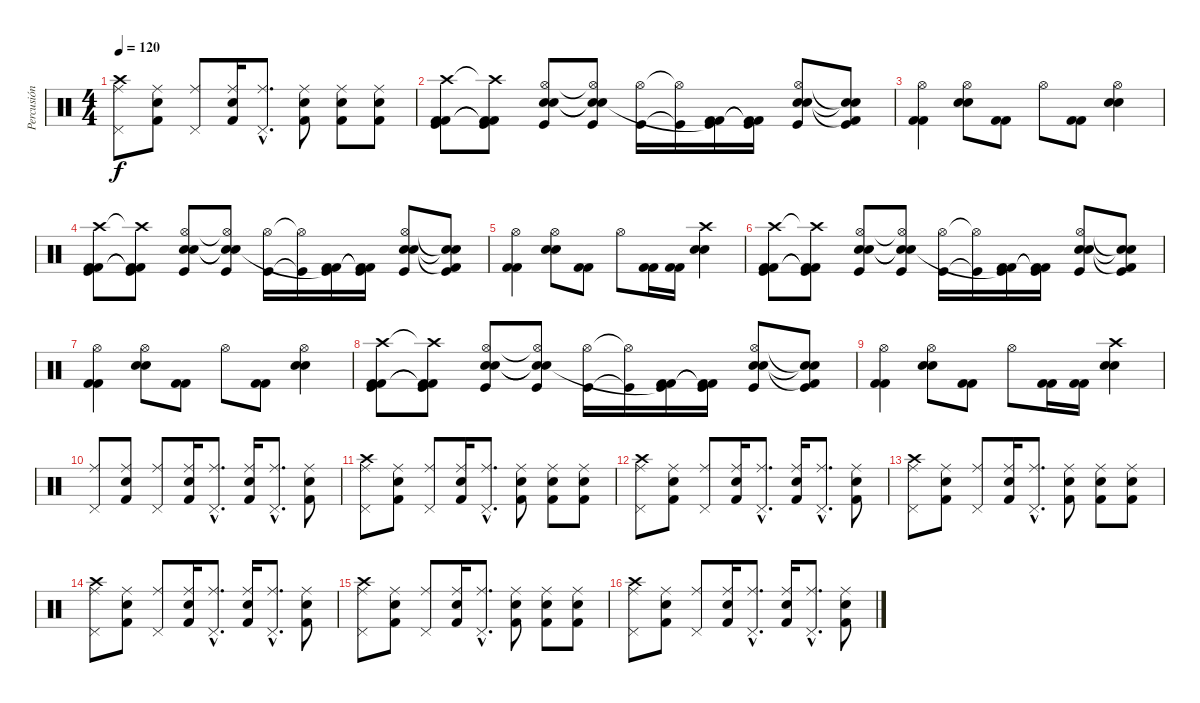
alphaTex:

\track ("Percusión" "Percusión") {instrument percussion}
\staff {score}
\articulation defaults
\ts (4 4)
\tempo 120
\clef neutral
\ks c
("Crash high (hit)" "Ride (middle)" "Pedal Hi-Hat (hit)").8{dy f} ("Ride (middle)" "Kick (hit) 2" "Snare (hit) 2").8 ("Ride (middle)" "Pedal Hi-Hat (hit)").8 ("Ride (middle)" "Kick (hit) 2" "Snare (hit) 2").16 ("Ride (middle)"{hac} "Pedal Hi-Hat (hit)"{hac}).8{d} ("Ride (middle)" "Kick (hit) 2" "Snare (hit) 2").8 ("Ride (middle)" "Kick (hit) 2" "Snare (hit) 2").8 ("Ride (middle)" "Kick (hit) 2" "Snare (hit) 2").8 |
("Crash high (hit)" "Kick (hit) 2" "Kick (hit) 2" "Kick (hit)").8 ("Crash high (hit)"{t} "Kick (hit) 2"{t} "Kick (hit) 2"{t} "Kick (hit)").8 ("Hi-Hat (open)" "Electric Snare (hit)" "Electric Snare (hit)" "Kick (hit)").8 ("Hi-Hat (open)"{t} "Electric Snare (hit)"{t} "Electric Snare (hit)"{t} "Kick (hit)").8 ("Hi-Hat (open)" "Kick (hit)").16 ("Hi-Hat (open)"{t} "Kick (hit)"{t}).16 ("Kick (hit) 2" "Kick (hit) 2" "Kick (hit)"{t}).16 ("Kick (hit) 2"{t} "Kick (hit) 2"{t} "Kick (hit)").16 ("Hi-Hat (open)" "Electric Snare (hit)" "Electric Snare (hit)" "Kick (hit)").8 ("Snare (hit)"{t} "Snare (hit)"{t} "Kick (hit) 2"{t} "Kick (hit)").8 |
("Hi-Hat (open)" "Kick (hit) 2" "Kick (hit) 2").4 ("Hi-Hat (open)" "Electric Snare (hit)" "Electric Snare (hit)").8 ("Kick (hit) 2" "Kick (hit) 2").8 "Hi-Hat (open)".8 ("Kick (hit) 2" "Kick (hit) 2").8 ("Hi-Hat (open)" "Electric Snare (hit)" "Electric Snare (hit)").4 |
("Crash high (hit)" "Kick (hit) 2" "Kick (hit) 2" "Kick (hit)").8 ("Crash high (hit)"{t} "Kick (hit) 2"{t} "Kick (hit) 2"{t} "Kick (hit)").8 ("Hi-Hat (open)" "Electric Snare (hit)" "Electric Snare (hit)" "Kick (hit)").8 ("Hi-Hat (open)"{t} "Electric Snare (hit)"{t} "Electric Snare (hit)"{t} "Kick (hit)").8 ("Hi-Hat (open)" "Kick (hit)").16 ("Hi-Hat (open)"{t} "Kick (hit)"{t}).16 ("Kick (hit) 2" "Kick (hit) 2" "Kick (hit)"{t}).16 ("Kick (hit) 2"{t} "Kick (hit) 2"{t} "Kick (hit)").16 ("Hi-Hat (open)" "Electric Snare (hit)" "Electric Snare (hit)" "Kick (hit)").8 ("Snare (hit)"{t} "Snare (hit)"{t} "Kick (hit) 2"{t} "Kick (hit)").8 |
("Hi-Hat (open)" "Kick (hit) 2" "Kick (hit) 2").4 ("Hi-Hat (open)" "Electric Snare (hit)" "Electric Snare (hit)").8 ("Kick (hit) 2" "Kick (hit) 2").8 "Hi-Hat (open)".8 ("Kick (hit) 2" "Kick (hit) 2").16 ("Kick (hit) 2" "Kick (hit) 2").16 ("Crash high (hit)" "Electric Snare (hit)" "Electric Snare (hit)").4 |
("Crash high (hit)" "Kick (hit) 2" "Kick (hit) 2" "Kick (hit)").8 ("Crash high (hit)"{t} "Kick (hit) 2"{t} "Kick (hit) 2"{t} "Kick (hit)").8 ("Hi-Hat (open)" "Electric Snare (hit)" "Electric Snare (hit)" "Kick (hit)").8 ("Hi-Hat (open)"{t} "Electric Snare (hit)"{t} "Electric Snare (hit)"{t} "Kick (hit)").8 ("Hi-Hat (open)" "Kick (hit)").16 ("Hi-Hat (open)"{t} "Kick (hit)"{t}).16 ("Kick (hit) 2" "Kick (hit) 2" "Kick (hit)"{t}).16 ("Kick (hit) 2"{t} "Kick (hit) 2"{t} "Kick (hit)").16 ("Hi-Hat (open)" "Electric Snare (hit)" "Electric Snare (hit)" "Kick (hit)").8 ("Snare (hit)"{t} "Snare (hit)"{t} "Kick (hit) 2"{t} "Kick (hit)").8 |
("Hi-Hat (open)" "Kick (hit) 2" "Kick (hit) 2").4 ("Hi-Hat (open)" "Electric Snare (hit)" "Electric Snare (hit)").8 ("Kick (hit) 2" "Kick (hit) 2").8 "Hi-Hat (open)".8 ("Kick (hit) 2" "Kick (hit) 2").8 ("Hi-Hat (open)" "Electric Snare (hit)" "Electric Snare (hit)").4 |
("Crash high (hit)" "Kick (hit) 2" "Kick (hit) 2" "Kick (hit)").8 ("Crash high (hit)"{t} "Kick (hit) 2"{t} "Kick (hit) 2"{t} "Kick (hit)").8 ("Hi-Hat (open)" "Electric Snare (hit)" "Electric Snare (hit)" "Kick (hit)").8 ("Hi-Hat (open)"{t} "Electric Snare (hit)"{t} "Electric Snare (hit)"{t} "Kick (hit)").8 ("Hi-Hat (open)" "Kick (hit)").16 ("Hi-Hat (open)"{t} "Kick (hit)"{t}).16 ("Kick (hit) 2" "Kick (hit) 2" "Kick (hit)"{t}).16 ("Kick (hit) 2"{t} "Kick (hit) 2"{t} "Kick (hit)").16 ("Hi-Hat (open)" "Electric Snare (hit)" "Electric Snare (hit)" "Kick (hit)").8 ("Snare (hit)"{t} "Snare (hit)"{t} "Kick (hit) 2"{t} "Kick (hit)").8 |
("Hi-Hat (open)" "Kick (hit) 2" "Kick (hit) 2").4 ("Hi-Hat (open)" "Electric Snare (hit)" "Electric Snare (hit)").8 ("Kick (hit) 2" "Kick (hit) 2").8 "Hi-Hat (open)".8 ("Kick (hit) 2" "Kick (hit) 2").16 ("Kick (hit) 2" "Kick (hit) 2").16 ("Crash high (hit)" "Electric Snare (hit)" "Electric Snare (hit)").4 |
("Ride (middle)" "Pedal Hi-Hat (hit)").8 ("Ride (middle)" "Kick (hit) 2" "Snare (hit) 2").8 ("Ride (middle)" "Pedal Hi-Hat (hit)").8 ("Ride (middle)" "Kick (hit) 2" "Snare (hit) 2").16 ("Ride (middle)"{hac} "Pedal Hi-Hat (hit)"{hac}).8{d} ("Ride (middle)" "Kick (hit) 2" "Snare (hit) 2").16 ("Ride (middle)"{hac} "Pedal Hi-Hat (hit)"{hac}).8{d} ("Ride (middle)" "Kick (hit) 2" "Snare (hit) 2").8 |
("Crash high (hit)" "Ride (middle)" "Pedal Hi-Hat (hit)").8 ("Ride (middle)" "Kick (hit) 2" "Snare (hit) 2").8 ("Ride (middle)" "Pedal Hi-Hat (hit)").8 ("Ride (middle)" "Kick (hit) 2" "Snare (hit) 2").16 ("Ride (middle)"{hac} "Pedal Hi-Hat (hit)"{hac}).8{d} ("Ride (middle)" "Kick (hit) 2" "Snare (hit) 2").8 ("Ride (middle)" "Kick (hit) 2" "Snare (hit) 2").8 ("Ride (middle)" "Kick (hit) 2" "Snare (hit) 2").8 |
("Crash high (hit)" "Ride (middle)" "Pedal Hi-Hat (hit)").8 ("Ride (middle)" "Kick (hit) 2" "Snare (hit) 2").8 ("Ride (middle)" "Pedal Hi-Hat (hit)").8 ("Ride (middle)" "Kick (hit) 2" "Snare (hit) 2").16 ("Ride (middle)"{hac} "Pedal Hi-Hat (hit)"{hac}).8{d} ("Ride (middle)" "Kick (hit) 2" "Snare (hit) 2").16 ("Ride (middle)"{hac} "Pedal Hi-Hat (hit)"{hac}).8{d} ("Ride (middle)" "Kick (hit) 2" "Snare (hit) 2").8 |
("Crash high (hit)" "Ride (middle)" "Pedal Hi-Hat (hit)").8 ("Ride (middle)" "Kick (hit) 2" "Snare (hit) 2").8 ("Ride (middle)" "Pedal Hi-Hat (hit)").8 ("Ride (middle)" "Kick (hit) 2" "Snare (hit) 2").16 ("Ride (middle)"{hac} "Pedal Hi-Hat (hit)"{hac}).8{d} ("Ride (middle)" "Kick (hit) 2" "Snare (hit) 2").8 ("Ride (middle)" "Kick (hit) 2" "Snare (hit) 2").8 ("Ride (middle)" "Kick (hit) 2" "Snare (hit) 2").8 |
("Crash high (hit)" "Ride (middle)" "Pedal Hi-Hat (hit)").8 ("Ride (middle)" "Kick (hit) 2" "Snare (hit) 2").8 ("Ride (middle)" "Pedal Hi-Hat (hit)").8 ("Ride (middle)" "Kick (hit) 2" "Snare (hit) 2").16 ("Ride (middle)"{hac} "Pedal Hi-Hat (hit)"{hac}).8{d} ("Ride (middle)" "Kick (hit) 2" "Snare (hit) 2").16 ("Ride (middle)"{hac} "Pedal Hi-Hat (hit)"{hac}).8{d} ("Ride (middle)" "Kick (hit) 2" "Snare (hit) 2").8 |
("Crash high (hit)" "Ride (middle)" "Pedal Hi-Hat (hit)").8 ("Ride (middle)" "Kick (hit) 2" "Snare (hit) 2").8 ("Ride (middle)" "Pedal Hi-Hat (hit)").8 ("Ride (middle)" "Kick (hit) 2" "Snare (hit) 2").16 ("Ride (middle)"{hac} "Pedal Hi-Hat (hit)"{hac}).8{d} ("Ride (middle)" "Kick (hit) 2" "Snare (hit) 2").8 ("Ride (middle)" "Kick (hit) 2" "Snare (hit) 2").8 ("Ride (middle)" "Kick (hit) 2" "Snare (hit) 2").8 |
("Crash high (hit)" "Ride (middle)" "Pedal Hi-Hat (hit)").8 ("Ride (middle)" "Kick (hit) 2" "Snare (hit) 2").8 ("Ride (middle)" "Pedal Hi-Hat (hit)").8 ("Ride (middle)" "Kick (hit) 2" "Snare (hit) 2").16 ("Ride (middle)"{hac} "Pedal Hi-Hat (hit)"{hac}).8{d} ("Ride (middle)" "Kick (hit) 2" "Snare (hit) 2").16 ("Ride (middle)"{hac} "Pedal Hi-Hat (hit)"{hac}).8{d} ("Ride (middle)" "Kick (hit) 2" "Snare (hit) 2").8
